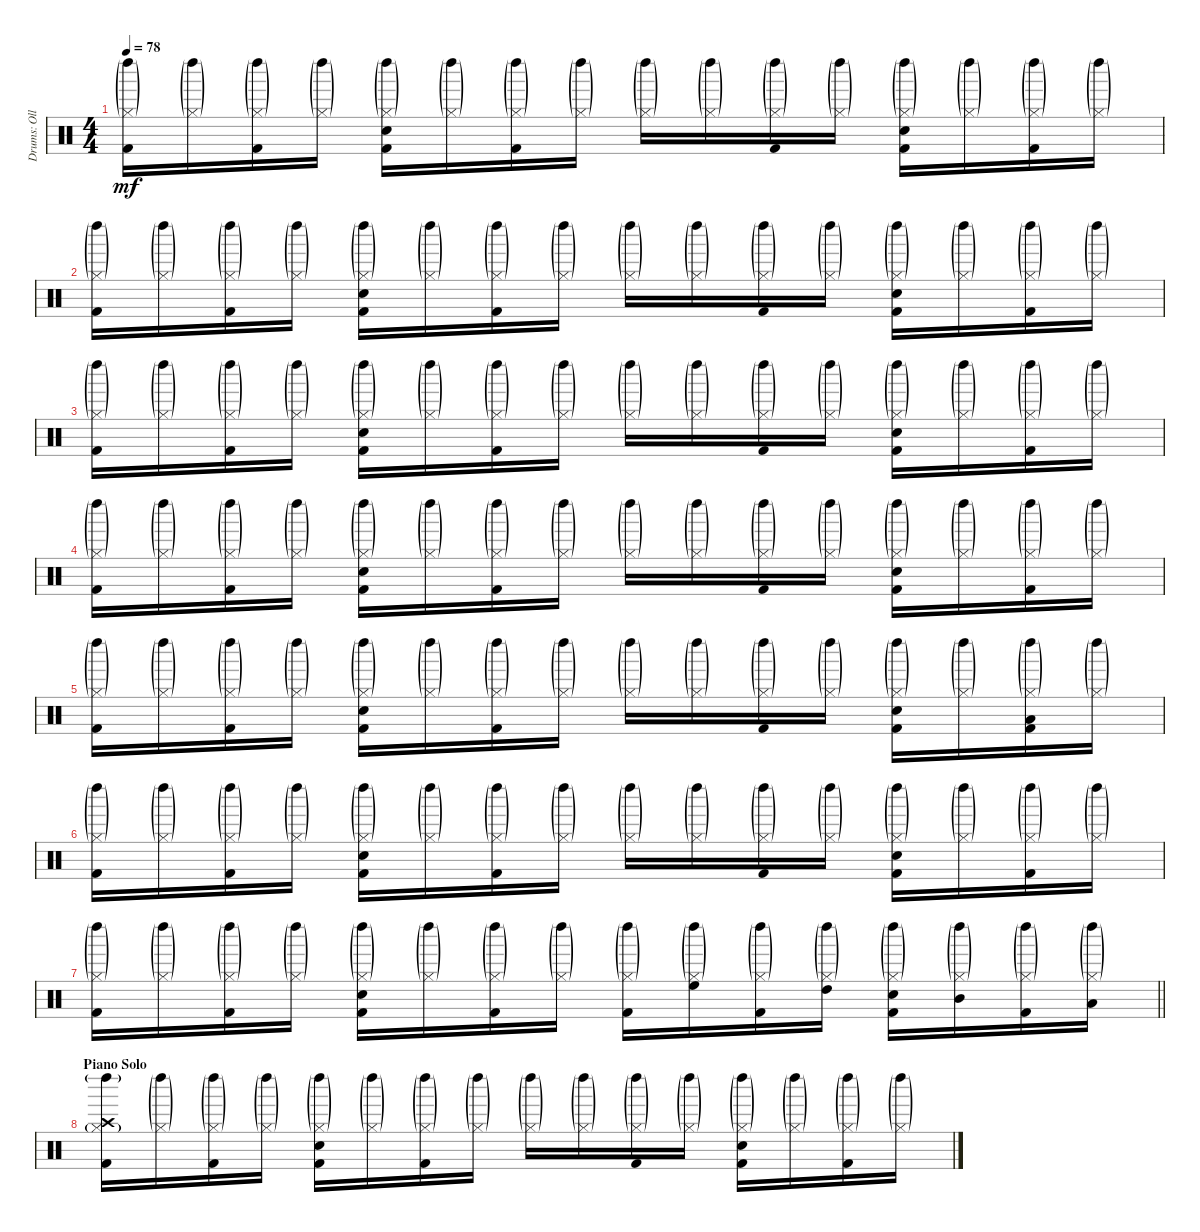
\track ("Drums: Olle Romeo" "Drums: Oll") {instrument percussion}
\staff {score}
\articulation defaults
\ts (4 4)
\tempo 78
\clef neutral
\ks c
("Hi-Hat (closed)"{g} "Kick (hit) 2" "Left Maraca (hit)"{g}).16{dy mf} ("Hi-Hat (closed)"{g} "Left Maraca (hit)"{g}).16 ("Hi-Hat (closed)"{g} "Kick (hit) 2" "Left Maraca (hit)"{g}).16 ("Hi-Hat (closed)"{g} "Left Maraca (hit)"{g}).16 ("Hi-Hat (closed)"{g} "Snare (hit) 2" "Kick (hit) 2" "Left Maraca (hit)"{g}).16 ("Hi-Hat (closed)"{g} "Left Maraca (hit)"{g}).16 ("Hi-Hat (closed)"{g} "Kick (hit) 2" "Left Maraca (hit)"{g}).16 ("Hi-Hat (closed)"{g} "Left Maraca (hit)"{g}).16 ("Hi-Hat (closed)"{g} "Left Maraca (hit)"{g}).16 ("Hi-Hat (closed)"{g} "Left Maraca (hit)"{g}).16 ("Hi-Hat (closed)"{g} "Kick (hit) 2" "Left Maraca (hit)"{g}).16 ("Hi-Hat (closed)"{g} "Left Maraca (hit)"{g}).16 ("Hi-Hat (closed)"{g} "Snare (hit) 2" "Kick (hit) 2" "Left Maraca (hit)"{g}).16 ("Hi-Hat (closed)"{g} "Left Maraca (hit)"{g}).16 ("Hi-Hat (closed)"{g} "Kick (hit) 2" "Left Maraca (hit)"{g}).16 ("Hi-Hat (closed)"{g} "Left Maraca (hit)"{g}).16 |
("Hi-Hat (closed)"{g} "Kick (hit) 2" "Left Maraca (hit)"{g}).16 ("Hi-Hat (closed)"{g} "Left Maraca (hit)"{g}).16 ("Hi-Hat (closed)"{g} "Kick (hit) 2" "Left Maraca (hit)"{g}).16 ("Hi-Hat (closed)"{g} "Left Maraca (hit)"{g}).16 ("Hi-Hat (closed)"{g} "Snare (hit) 2" "Kick (hit) 2" "Left Maraca (hit)"{g}).16 ("Hi-Hat (closed)"{g} "Left Maraca (hit)"{g}).16 ("Hi-Hat (closed)"{g} "Kick (hit) 2" "Left Maraca (hit)"{g}).16 ("Hi-Hat (closed)"{g} "Left Maraca (hit)"{g}).16 ("Hi-Hat (closed)"{g} "Left Maraca (hit)"{g}).16 ("Hi-Hat (closed)"{g} "Left Maraca (hit)"{g}).16 ("Hi-Hat (closed)"{g} "Kick (hit) 2" "Left Maraca (hit)"{g}).16 ("Hi-Hat (closed)"{g} "Left Maraca (hit)"{g}).16 ("Hi-Hat (closed)"{g} "Snare (hit) 2" "Kick (hit) 2" "Left Maraca (hit)"{g}).16 ("Hi-Hat (closed)"{g} "Left Maraca (hit)"{g}).16 ("Hi-Hat (closed)"{g} "Kick (hit) 2" "Left Maraca (hit)"{g}).16 ("Hi-Hat (closed)"{g} "Left Maraca (hit)"{g}).16 |
("Hi-Hat (closed)"{g} "Kick (hit) 2" "Left Maraca (hit)"{g}).16 ("Hi-Hat (closed)"{g} "Left Maraca (hit)"{g}).16 ("Hi-Hat (closed)"{g} "Kick (hit) 2" "Left Maraca (hit)"{g}).16 ("Hi-Hat (closed)"{g} "Left Maraca (hit)"{g}).16 ("Hi-Hat (closed)"{g} "Snare (hit) 2" "Kick (hit) 2" "Left Maraca (hit)"{g}).16 ("Hi-Hat (closed)"{g} "Left Maraca (hit)"{g}).16 ("Hi-Hat (closed)"{g} "Kick (hit) 2" "Left Maraca (hit)"{g}).16 ("Hi-Hat (closed)"{g} "Left Maraca (hit)"{g}).16 ("Hi-Hat (closed)"{g} "Left Maraca (hit)"{g}).16 ("Hi-Hat (closed)"{g} "Left Maraca (hit)"{g}).16 ("Hi-Hat (closed)"{g} "Kick (hit) 2" "Left Maraca (hit)"{g}).16 ("Hi-Hat (closed)"{g} "Left Maraca (hit)"{g}).16 ("Hi-Hat (closed)"{g} "Snare (hit) 2" "Kick (hit) 2" "Left Maraca (hit)"{g}).16 ("Hi-Hat (closed)"{g} "Left Maraca (hit)"{g}).16 ("Hi-Hat (closed)"{g} "Kick (hit) 2" "Left Maraca (hit)"{g}).16 ("Hi-Hat (closed)"{g} "Left Maraca (hit)"{g}).16 |
("Hi-Hat (closed)"{g} "Kick (hit) 2" "Left Maraca (hit)"{g}).16 ("Hi-Hat (closed)"{g} "Left Maraca (hit)"{g}).16 ("Hi-Hat (closed)"{g} "Kick (hit) 2" "Left Maraca (hit)"{g}).16 ("Hi-Hat (closed)"{g} "Left Maraca (hit)"{g}).16 ("Hi-Hat (closed)"{g} "Snare (hit) 2" "Kick (hit) 2" "Left Maraca (hit)"{g}).16 ("Hi-Hat (closed)"{g} "Left Maraca (hit)"{g}).16 ("Hi-Hat (closed)"{g} "Kick (hit) 2" "Left Maraca (hit)"{g}).16 ("Hi-Hat (closed)"{g} "Left Maraca (hit)"{g}).16 ("Hi-Hat (closed)"{g} "Left Maraca (hit)"{g}).16 ("Hi-Hat (closed)"{g} "Left Maraca (hit)"{g}).16 ("Hi-Hat (closed)"{g} "Kick (hit) 2" "Left Maraca (hit)"{g}).16 ("Hi-Hat (closed)"{g} "Left Maraca (hit)"{g}).16 ("Hi-Hat (closed)"{g} "Snare (hit) 2" "Kick (hit) 2" "Left Maraca (hit)"{g}).16 ("Hi-Hat (closed)"{g} "Left Maraca (hit)"{g}).16 ("Hi-Hat (closed)"{g} "Kick (hit) 2" "Left Maraca (hit)"{g}).16 ("Hi-Hat (closed)"{g} "Left Maraca (hit)"{g}).16 |
("Hi-Hat (closed)"{g} "Kick (hit) 2" "Left Maraca (hit)"{g}).16 ("Hi-Hat (closed)"{g} "Left Maraca (hit)"{g}).16 ("Hi-Hat (closed)"{g} "Kick (hit) 2" "Left Maraca (hit)"{g}).16 ("Hi-Hat (closed)"{g} "Left Maraca (hit)"{g}).16 ("Hi-Hat (closed)"{g} "Snare (hit) 2" "Kick (hit) 2" "Left Maraca (hit)"{g}).16 ("Hi-Hat (closed)"{g} "Left Maraca (hit)"{g}).16 ("Hi-Hat (closed)"{g} "Kick (hit) 2" "Left Maraca (hit)"{g}).16 ("Hi-Hat (closed)"{g} "Left Maraca (hit)"{g}).16 ("Hi-Hat (closed)"{g} "Left Maraca (hit)"{g}).16 ("Hi-Hat (closed)"{g} "Left Maraca (hit)"{g}).16 ("Hi-Hat (closed)"{g} "Kick (hit) 2" "Left Maraca (hit)"{g}).16 ("Hi-Hat (closed)"{g} "Left Maraca (hit)"{g}).16 ("Hi-Hat (closed)"{g} "Snare (hit) 2" "Kick (hit) 2" "Left Maraca (hit)"{g}).16 ("Hi-Hat (closed)"{g} "Left Maraca (hit)"{g}).16 ("Hi-Hat (closed)"{g} "Low Floor Tom (hit)" "Kick (hit) 2" "Left Maraca (hit)"{g}).16 ("Hi-Hat (closed)"{g} "Left Maraca (hit)"{g}).16 |
("Hi-Hat (closed)"{g} "Kick (hit) 2" "Left Maraca (hit)"{g}).16 ("Hi-Hat (closed)"{g} "Left Maraca (hit)"{g}).16 ("Hi-Hat (closed)"{g} "Kick (hit) 2" "Left Maraca (hit)"{g}).16 ("Hi-Hat (closed)"{g} "Left Maraca (hit)"{g}).16 ("Hi-Hat (closed)"{g} "Snare (hit) 2" "Kick (hit) 2" "Left Maraca (hit)"{g}).16 ("Hi-Hat (closed)"{g} "Left Maraca (hit)"{g}).16 ("Hi-Hat (closed)"{g} "Kick (hit) 2" "Left Maraca (hit)"{g}).16 ("Hi-Hat (closed)"{g} "Left Maraca (hit)"{g}).16 ("Hi-Hat (closed)"{g} "Left Maraca (hit)"{g}).16 ("Hi-Hat (closed)"{g} "Left Maraca (hit)"{g}).16 ("Hi-Hat (closed)"{g} "Kick (hit) 2" "Left Maraca (hit)"{g}).16 ("Hi-Hat (closed)"{g} "Left Maraca (hit)"{g}).16 ("Hi-Hat (closed)"{g} "Snare (hit) 2" "Kick (hit) 2" "Left Maraca (hit)"{g}).16 ("Hi-Hat (closed)"{g} "Left Maraca (hit)"{g}).16 ("Hi-Hat (closed)"{g} "Kick (hit) 2" "Left Maraca (hit)"{g}).16 ("Hi-Hat (closed)"{g} "Left Maraca (hit)"{g}).16 |
\barLineRight lightlight
("Hi-Hat (closed)"{g} "Kick (hit) 2" "Left Maraca (hit)"{g}).16 ("Hi-Hat (closed)"{g} "Left Maraca (hit)"{g}).16 ("Hi-Hat (closed)"{g} "Kick (hit) 2" "Left Maraca (hit)"{g}).16 ("Hi-Hat (closed)"{g} "Left Maraca (hit)"{g}).16 ("Hi-Hat (closed)"{g} "Snare (hit) 2" "Kick (hit) 2" "Left Maraca (hit)"{g}).16 ("Hi-Hat (closed)"{g} "Left Maraca (hit)"{g}).16 ("Hi-Hat (closed)"{g} "Kick (hit) 2" "Left Maraca (hit)"{g}).16 ("Hi-Hat (closed)"{g} "Left Maraca (hit)"{g}).16 ("Hi-Hat (closed)"{g} "Kick (hit) 2" "Left Maraca (hit)"{g}).16 ("Hi-Hat (closed)"{g} "High Floor Tom (hit)" "Left Maraca (hit)"{g}).16 ("Hi-Hat (closed)"{g} "Kick (hit) 2" "Left Maraca (hit)"{g}).16 ("Hi-Hat (closed)"{g} "High Tom (hit)" "Left Maraca (hit)"{g}).16 ("Hi-Hat (closed)"{g} "Snare (hit) 2" "Kick (hit) 2" "Left Maraca (hit)"{g}).16 ("Hi-Hat (closed)"{g} "Mid Tom (hit)" "Left Maraca (hit)"{g}).16 ("Hi-Hat (closed)"{g} "Kick (hit) 2" "Left Maraca (hit)"{g}).16 ("Hi-Hat (closed)"{g} "Low Tom (hit)" "Left Maraca (hit)"{g}).16 |
\section ("" "Piano Solo")
("Crash high (hit)" "Hi-Hat (closed)"{g} "Kick (hit) 2" "Left Maraca (hit)"{g}).16 ("Hi-Hat (closed)"{g} "Left Maraca (hit)"{g}).16 ("Hi-Hat (closed)"{g} "Kick (hit) 2" "Left Maraca (hit)"{g}).16 ("Hi-Hat (closed)"{g} "Left Maraca (hit)"{g}).16 ("Hi-Hat (closed)"{g} "Snare (hit) 2" "Kick (hit) 2" "Left Maraca (hit)"{g}).16 ("Hi-Hat (closed)"{g} "Left Maraca (hit)"{g}).16 ("Hi-Hat (closed)"{g} "Kick (hit) 2" "Left Maraca (hit)"{g}).16 ("Hi-Hat (closed)"{g} "Left Maraca (hit)"{g}).16 ("Hi-Hat (closed)"{g} "Left Maraca (hit)"{g}).16 ("Hi-Hat (closed)"{g} "Left Maraca (hit)"{g}).16 ("Hi-Hat (closed)"{g} "Kick (hit) 2" "Left Maraca (hit)"{g}).16 ("Hi-Hat (closed)"{g} "Left Maraca (hit)"{g}).16 ("Hi-Hat (closed)"{g} "Snare (hit) 2" "Kick (hit) 2" "Left Maraca (hit)"{g}).16 ("Hi-Hat (closed)"{g} "Left Maraca (hit)"{g}).16 ("Hi-Hat (closed)"{g} "Kick (hit) 2" "Left Maraca (hit)"{g}).16 ("Hi-Hat (closed)"{g} "Left Maraca (hit)"{g}).16
